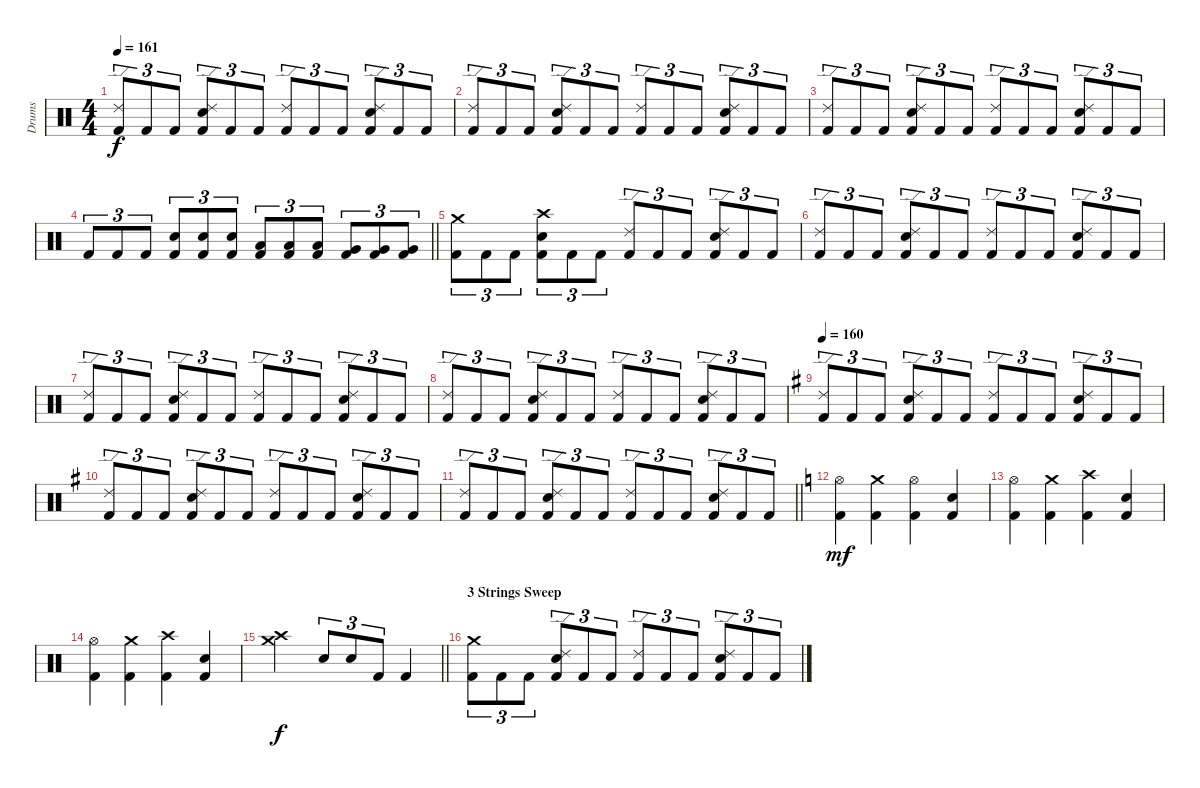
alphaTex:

\track ("Drums" "Drums") {instrument percussion}
\staff {score}
\articulation defaults
\ts (4 4)
\tempo 161
\clef neutral
\ks aminor
("Ride (edge) 2" "Kick (hit) 2").8{tu (3 2) dy f} "Kick (hit) 2".8{tu (3 2)} "Kick (hit) 2".8{tu (3 2)} ("Ride (edge) 2" "Snare (hit) 2" "Kick (hit) 2").8{tu (3 2)} "Kick (hit) 2".8{tu (3 2)} "Kick (hit) 2".8{tu (3 2)} ("Ride (edge) 2" "Kick (hit) 2").8{tu (3 2)} "Kick (hit) 2".8{tu (3 2)} "Kick (hit) 2".8{tu (3 2)} ("Ride (edge) 2" "Snare (hit) 2" "Kick (hit) 2").8{tu (3 2)} "Kick (hit) 2".8{tu (3 2)} "Kick (hit) 2".8{tu (3 2)} |
("Ride (edge) 2" "Kick (hit) 2").8{tu (3 2)} "Kick (hit) 2".8{tu (3 2)} "Kick (hit) 2".8{tu (3 2)} ("Ride (edge) 2" "Snare (hit) 2" "Kick (hit) 2").8{tu (3 2)} "Kick (hit) 2".8{tu (3 2)} "Kick (hit) 2".8{tu (3 2)} ("Ride (edge) 2" "Kick (hit) 2").8{tu (3 2)} "Kick (hit) 2".8{tu (3 2)} "Kick (hit) 2".8{tu (3 2)} ("Ride (edge) 2" "Snare (hit) 2" "Kick (hit) 2").8{tu (3 2)} "Kick (hit) 2".8{tu (3 2)} "Kick (hit) 2".8{tu (3 2)} |
("Ride (edge) 2" "Kick (hit) 2").8{tu (3 2)} "Kick (hit) 2".8{tu (3 2)} "Kick (hit) 2".8{tu (3 2)} ("Ride (edge) 2" "Snare (hit) 2" "Kick (hit) 2").8{tu (3 2)} "Kick (hit) 2".8{tu (3 2)} "Kick (hit) 2".8{tu (3 2)} ("Ride (edge) 2" "Kick (hit) 2").8{tu (3 2)} "Kick (hit) 2".8{tu (3 2)} "Kick (hit) 2".8{tu (3 2)} ("Ride (edge) 2" "Snare (hit) 2" "Kick (hit) 2").8{tu (3 2)} "Kick (hit) 2".8{tu (3 2)} "Kick (hit) 2".8{tu (3 2)} |
\barLineRight lightlight "Kick (hit) 2".8{tu (3 2)} "Kick (hit) 2".8{tu (3 2)} "Kick (hit) 2".8{tu (3 2)}
("Snare (hit) 2" "Kick (hit) 2").8{tu (3 2)} ("Snare (hit) 2" "Kick (hit) 2").8{tu (3 2)} ("Snare (hit) 2" "Kick (hit) 2").8{tu (3 2)} ("Low Tom (hit)" "Kick (hit) 2").8{tu (3 2)} ("Low Tom (hit)" "Kick (hit) 2").8{tu (3 2)} ("Low Tom (hit)" "Kick (hit) 2").8{tu (3 2)} ("Very Low Tom (hit)" "Kick (hit) 2").8{tu (3 2)} ("Very Low Tom (hit)" "Kick (hit) 2").8{tu (3 2)} ("Very Low Tom (hit)" "Kick (hit) 2").8{tu (3 2)} |
\section ("" "")
\ks c
("Crash medium (hit)" "Kick (hit) 2").8{tu (3 2)} "Kick (hit) 2".8{tu (3 2)} "Kick (hit) 2".8{tu (3 2)} ("Crash high (hit)" "Snare (hit) 2" "Kick (hit) 2").8{tu (3 2)} "Kick (hit) 2".8{tu (3 2)} "Kick (hit) 2".8{tu (3 2)} ("Ride (edge) 2" "Kick (hit) 2").8{tu (3 2)} "Kick (hit) 2".8{tu (3 2)} "Kick (hit) 2".8{tu (3 2)} ("Ride (edge) 2" "Snare (hit) 2" "Kick (hit) 2").8{tu (3 2)} "Kick (hit) 2".8{tu (3 2)} "Kick (hit) 2".8{tu (3 2)} |
("Ride (edge) 2" "Kick (hit) 2").8{tu (3 2)} "Kick (hit) 2".8{tu (3 2)} "Kick (hit) 2".8{tu (3 2)} ("Ride (edge) 2" "Snare (hit) 2" "Kick (hit) 2").8{tu (3 2)} "Kick (hit) 2".8{tu (3 2)} "Kick (hit) 2".8{tu (3 2)} ("Ride (edge) 2" "Kick (hit) 2").8{tu (3 2)} "Kick (hit) 2".8{tu (3 2)} "Kick (hit) 2".8{tu (3 2)} ("Ride (edge) 2" "Snare (hit) 2" "Kick (hit) 2").8{tu (3 2)} "Kick (hit) 2".8{tu (3 2)} "Kick (hit) 2".8{tu (3 2)} |
("Ride (edge) 2" "Kick (hit) 2").8{tu (3 2)} "Kick (hit) 2".8{tu (3 2)} "Kick (hit) 2".8{tu (3 2)} ("Ride (edge) 2" "Snare (hit) 2" "Kick (hit) 2").8{tu (3 2)} "Kick (hit) 2".8{tu (3 2)} "Kick (hit) 2".8{tu (3 2)} ("Ride (edge) 2" "Kick (hit) 2").8{tu (3 2)} "Kick (hit) 2".8{tu (3 2)} "Kick (hit) 2".8{tu (3 2)} ("Ride (edge) 2" "Snare (hit) 2" "Kick (hit) 2").8{tu (3 2)} "Kick (hit) 2".8{tu (3 2)} "Kick (hit) 2".8{tu (3 2)} |
("Ride (edge) 2" "Kick (hit) 2").8{tu (3 2)} "Kick (hit) 2".8{tu (3 2)} "Kick (hit) 2".8{tu (3 2)} ("Ride (edge) 2" "Snare (hit) 2" "Kick (hit) 2").8{tu (3 2)} "Kick (hit) 2".8{tu (3 2)} "Kick (hit) 2".8{tu (3 2)} ("Ride (edge) 2" "Kick (hit) 2").8{tu (3 2)} "Kick (hit) 2".8{tu (3 2)} "Kick (hit) 2".8{tu (3 2)} ("Ride (edge) 2" "Snare (hit) 2" "Kick (hit) 2").8{tu (3 2)} "Kick (hit) 2".8{tu (3 2)} "Kick (hit) 2".8{tu (3 2)} |
\tempo 160
\ks eminor
("Ride (edge) 2" "Kick (hit) 2").8{tu (3 2)} "Kick (hit) 2".8{tu (3 2)} "Kick (hit) 2".8{tu (3 2)} ("Ride (edge) 2" "Snare (hit) 2" "Kick (hit) 2").8{tu (3 2)} "Kick (hit) 2".8{tu (3 2)} "Kick (hit) 2".8{tu (3 2)} ("Ride (edge) 2" "Kick (hit) 2").8{tu (3 2)} "Kick (hit) 2".8{tu (3 2)} "Kick (hit) 2".8{tu (3 2)} ("Ride (edge) 2" "Snare (hit) 2" "Kick (hit) 2").8{tu (3 2)} "Kick (hit) 2".8{tu (3 2)} "Kick (hit) 2".8{tu (3 2)} |
("Ride (edge) 2" "Kick (hit) 2").8{tu (3 2)} "Kick (hit) 2".8{tu (3 2)} "Kick (hit) 2".8{tu (3 2)} ("Ride (edge) 2" "Snare (hit) 2" "Kick (hit) 2").8{tu (3 2)} "Kick (hit) 2".8{tu (3 2)} "Kick (hit) 2".8{tu (3 2)} ("Ride (edge) 2" "Kick (hit) 2").8{tu (3 2)} "Kick (hit) 2".8{tu (3 2)} "Kick (hit) 2".8{tu (3 2)} ("Ride (edge) 2" "Snare (hit) 2" "Kick (hit) 2").8{tu (3 2)} "Kick (hit) 2".8{tu (3 2)} "Kick (hit) 2".8{tu (3 2)} |
\barLineRight lightlight
("Ride (edge) 2" "Kick (hit) 2").8{tu (3 2)} "Kick (hit) 2".8{tu (3 2)} "Kick (hit) 2".8{tu (3 2)} ("Ride (edge) 2" "Snare (hit) 2" "Kick (hit) 2").8{tu (3 2)} "Kick (hit) 2".8{tu (3 2)} "Kick (hit) 2".8{tu (3 2)} ("Ride (edge) 2" "Kick (hit) 2").8{tu (3 2)} "Kick (hit) 2".8{tu (3 2)} "Kick (hit) 2".8{tu (3 2)} ("Ride (edge) 2" "Snare (hit) 2" "Kick (hit) 2").8{tu (3 2)} "Kick (hit) 2".8{tu (3 2)} "Kick (hit) 2".8{tu (3 2)} |
\ks aminor
("Hi-Hat (open)" "Kick (hit) 2").4{dy mf} ("Crash medium (hit)" "Kick (hit) 2").4 ("Hi-Hat (open)" "Kick (hit) 2").4 ("Snare (hit) 2" "Kick (hit) 2").4 |
("Hi-Hat (open)" "Kick (hit) 2").4 ("Crash medium (hit)" "Kick (hit) 2").4 ("Crash high (hit)" "Kick (hit) 2").4 ("Snare (hit) 2" "Kick (hit) 2").4 |
("Hi-Hat (open)" "Kick (hit) 2").4 ("Crash medium (hit)" "Kick (hit) 2").4 ("Crash high (hit)" "Kick (hit) 2").4 ("Snare (hit) 2" "Kick (hit) 2").4 |
\barLineRight lightlight
("Crash high (hit)" "Crash medium (hit)").2{dy f} "Snare (hit) 2".8{tu (3 2)} "Snare (hit) 2".8{tu (3 2)} "Kick (hit) 2".8{tu (3 2)} "Kick (hit) 2".4 |
\section ("" "3 Strings Sweep ")
("Crash medium (hit)" "Kick (hit) 2").8{tu (3 2)} "Kick (hit) 2".8{tu (3 2)} "Kick (hit) 2".8{tu (3 2)} ("Ride (edge) 2" "Snare (hit) 2" "Kick (hit) 2").8{tu (3 2)} "Kick (hit) 2".8{tu (3 2)} "Kick (hit) 2".8{tu (3 2)} ("Ride (edge) 2" "Kick (hit) 2").8{tu (3 2)} "Kick (hit) 2".8{tu (3 2)} "Kick (hit) 2".8{tu (3 2)} ("Ride (edge) 2" "Snare (hit) 2" "Kick (hit) 2").8{tu (3 2)} "Kick (hit) 2".8{tu (3 2)} "Kick (hit) 2".8{tu (3 2)}
